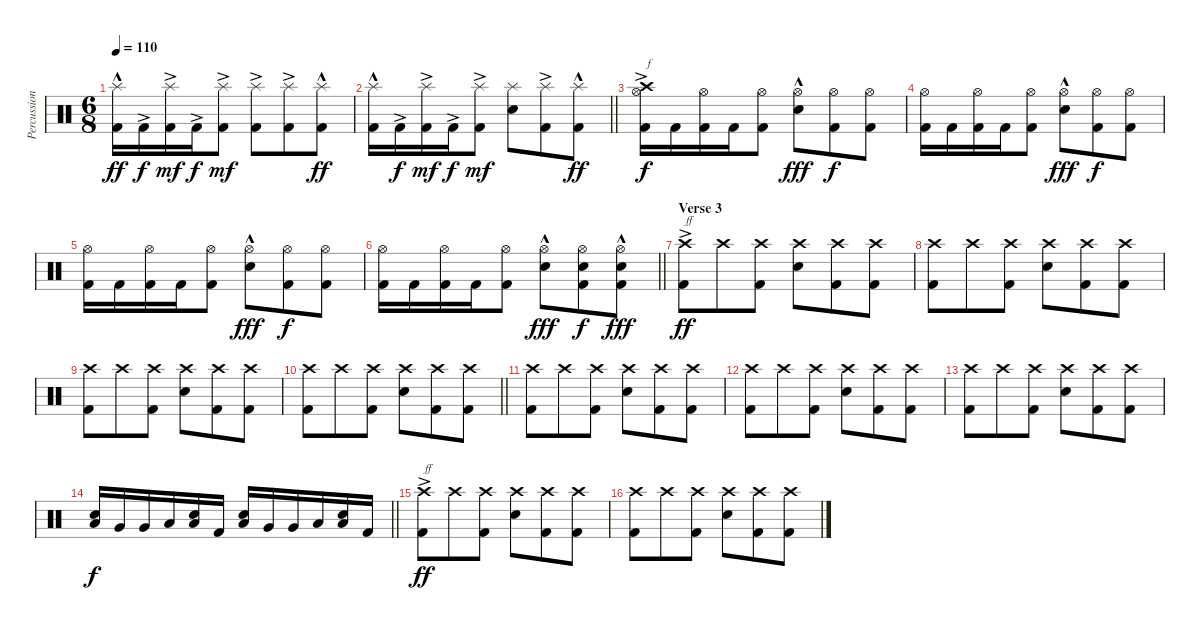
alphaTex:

\track ("Percussion" "Percussion") {instrument percussion}
\staff {score}
\articulation defaults
\ts (6 8)
\tempo 110
\clef neutral
\ks c
("Splash (hit)" "Kick (hit) 2"{hac}).16{dy ff} "Kick (hit) 2"{ac}.16{dy f} ("Splash (hit)" "Kick (hit) 2"{ac}).16{dy mf} "Kick (hit) 2"{ac}.16{dy f} ("Splash (hit)" "Kick (hit) 2"{ac}).8{dy mf} ("Splash (hit)" "Kick (hit) 2"{ac}).8 ("Splash (hit)" "Kick (hit) 2"{ac}).8 ("Splash (hit)" "Kick (hit) 2"{hac}).8{dy ff} |
\barLineRight lightlight
("Splash (hit)" "Kick (hit) 2"{hac}).16 "Kick (hit) 2"{ac}.16{dy f} ("Splash (hit)" "Kick (hit) 2"{ac}).16{dy mf} "Kick (hit) 2"{ac}.16{dy f} ("Splash (hit)" "Kick (hit) 2"{ac}).8{dy mf} ("Splash (hit)" "Snare (hit) 2").8 ("Splash (hit)" "Kick (hit) 2"{ac}).8 ("Splash (hit)" "Kick (hit) 2"{hac}).8{dy ff} |
\section ("" "")
("Crash high (hit)"{ac} "Hi-Hat (open)" "Kick (hit) 2").16{txt "f" dy f} "Kick (hit) 2".16 ("Hi-Hat (open)" "Kick (hit) 2").16 "Kick (hit) 2".16 ("Hi-Hat (open)" "Kick (hit) 2").8 ("Hi-Hat (open)" "Snare (hit) 2"{hac}).8{dy fff} ("Hi-Hat (open)" "Kick (hit) 2").8{dy f} ("Hi-Hat (open)" "Kick (hit) 2").8 |
("Hi-Hat (open)" "Kick (hit) 2").16 "Kick (hit) 2".16 ("Hi-Hat (open)" "Kick (hit) 2").16 "Kick (hit) 2".16 ("Hi-Hat (open)" "Kick (hit) 2").8 ("Hi-Hat (open)" "Snare (hit) 2"{hac}).8{dy fff} ("Hi-Hat (open)" "Kick (hit) 2").8{dy f} ("Hi-Hat (open)" "Kick (hit) 2").8 |
("Hi-Hat (open)" "Kick (hit) 2").16 "Kick (hit) 2".16 ("Hi-Hat (open)" "Kick (hit) 2").16 "Kick (hit) 2".16 ("Hi-Hat (open)" "Kick (hit) 2").8 ("Hi-Hat (open)" "Snare (hit) 2"{hac}).8{dy fff} ("Hi-Hat (open)" "Kick (hit) 2").8{dy f} ("Hi-Hat (open)" "Kick (hit) 2").8 |
\barLineRight lightlight
("Hi-Hat (open)" "Kick (hit) 2").16 "Kick (hit) 2".16 ("Hi-Hat (open)" "Kick (hit) 2").16 "Kick (hit) 2".16 ("Hi-Hat (open)" "Kick (hit) 2").8 ("Hi-Hat (open)" "Snare (hit) 2"{hac}).8{dy fff} ("Hi-Hat (open)" "Snare (hit) 2" "Kick (hit) 2").8{dy f} ("Hi-Hat (open)" "Snare (hit) 2"{hac} "Kick (hit) 2").8{dy fff} |
\section ("" "Verse 3")
("Crash high (hit)"{ac} "Kick (hit) 2"{ac}).8{txt "ff" dy ff} "Crash high (hit)".8 ("Crash high (hit)" "Kick (hit) 2").8 ("Crash high (hit)" "Snare (hit) 2").8 ("Crash high (hit)" "Kick (hit) 2").8 ("Crash high (hit)" "Kick (hit) 2").8 |
("Crash high (hit)" "Kick (hit) 2").8 "Crash high (hit)".8 ("Crash high (hit)" "Kick (hit) 2").8 ("Crash high (hit)" "Snare (hit) 2").8 ("Crash high (hit)" "Kick (hit) 2").8 ("Crash high (hit)" "Kick (hit) 2").8 |
("Crash high (hit)" "Kick (hit) 2").8 "Crash high (hit)".8 ("Crash high (hit)" "Kick (hit) 2").8 ("Crash high (hit)" "Snare (hit) 2").8 ("Crash high (hit)" "Kick (hit) 2").8 ("Crash high (hit)" "Kick (hit) 2").8 |
\barLineRight lightlight
("Crash high (hit)" "Kick (hit) 2").8 "Crash high (hit)".8 ("Crash high (hit)" "Kick (hit) 2").8 ("Crash high (hit)" "Snare (hit) 2").8 ("Crash high (hit)" "Kick (hit) 2").8 ("Crash high (hit)" "Kick (hit) 2").8 |
\section ("" "")
("Crash high (hit)" "Kick (hit) 2").8 "Crash high (hit)".8 ("Crash high (hit)" "Kick (hit) 2").8 ("Crash high (hit)" "Snare (hit) 2").8 ("Crash high (hit)" "Kick (hit) 2").8 ("Crash high (hit)" "Kick (hit) 2").8 |
("Crash high (hit)" "Kick (hit) 2").8 "Crash high (hit)".8 ("Crash high (hit)" "Kick (hit) 2").8 ("Crash high (hit)" "Snare (hit) 2").8 ("Crash high (hit)" "Kick (hit) 2").8 ("Crash high (hit)" "Kick (hit) 2").8 |
("Crash high (hit)" "Kick (hit) 2").8 "Crash high (hit)".8 ("Crash high (hit)" "Kick (hit) 2").8 ("Crash high (hit)" "Snare (hit) 2").8 ("Crash high (hit)" "Kick (hit) 2").8 ("Crash high (hit)" "Kick (hit) 2").8 |
\barLineRight lightlight
("Snare (hit) 2" "Low Tom (hit)").16{dy f} "Very Low Tom (hit)".16 "Very Low Tom (hit)".16 "Low Floor Tom (hit)".16 ("Snare (hit) 2" "Low Floor Tom (hit)").16 "Kick (hit) 2".16 ("Snare (hit) 2" "Low Tom (hit)").16 "Very Low Tom (hit)".16 "Very Low Tom (hit)".16 "Low Floor Tom (hit)".16 ("Snare (hit) 2" "Low Floor Tom (hit)").16 "Kick (hit) 2".16 |
\section ("" "")
("Crash high (hit)"{ac} "Kick (hit) 2"{ac}).8{txt "ff" dy ff} "Crash high (hit)".8 ("Crash high (hit)" "Kick (hit) 2").8 ("Crash high (hit)" "Snare (hit) 2").8 ("Crash high (hit)" "Kick (hit) 2").8 ("Crash high (hit)" "Kick (hit) 2").8 |
("Crash high (hit)" "Kick (hit) 2").8 "Crash high (hit)".8 ("Crash high (hit)" "Kick (hit) 2").8 ("Crash high (hit)" "Snare (hit) 2").8 ("Crash high (hit)" "Kick (hit) 2").8 ("Crash high (hit)" "Kick (hit) 2").8
